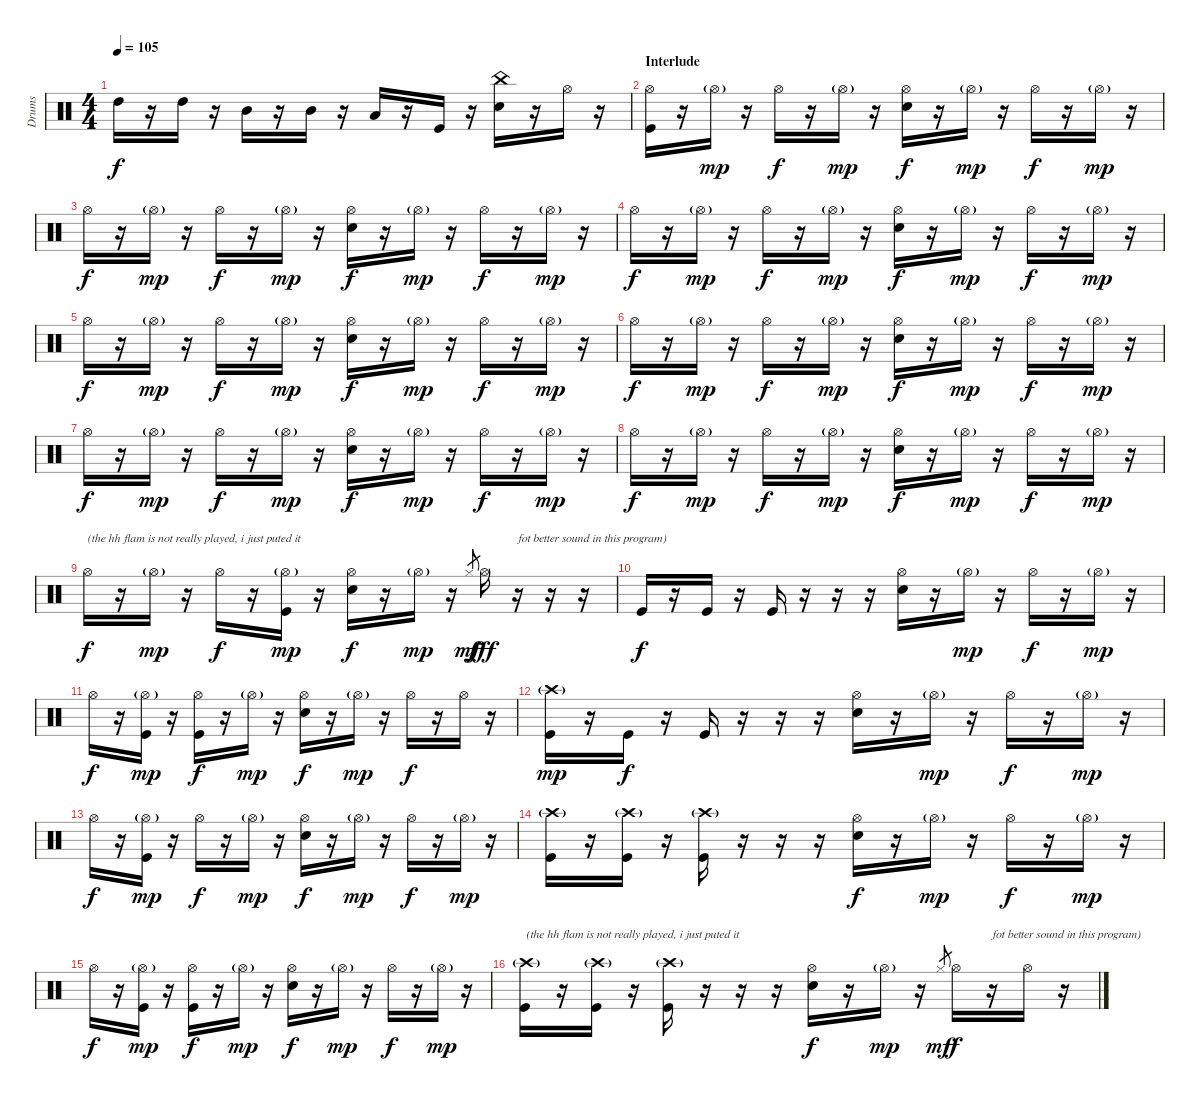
\track ("Drums" "Drums") {instrument percussion}
\staff {score}
\articulation defaults
\ts (4 4)
\tempo 105
\clef neutral
\ks c "High Tom (hit)".16{dy f}
r.16 "High Tom (hit)".16 r.16 "Mid Tom (hit)".16 r.16 "Mid Tom (hit)".16 r.16 "Low Tom (hit)".16 r.16 "Kick (hit)".16 r.16 ("China (hit)" "Snare (hit) 2").16 r.16 "Hi-Hat (open)".16 r.16 |
\section ("" "Interlude")
("Hi-Hat (open)" "Kick (hit)").16 r.16 "Hi-Hat (open)"{g}.16{dy mp} r.16 "Hi-Hat (open)".16{dy f} r.16 "Hi-Hat (open)"{g}.16{dy mp} r.16 ("Hi-Hat (open)" "Snare (hit) 2").16{dy f} r.16 "Hi-Hat (open)"{g}.16{dy mp} r.16 "Hi-Hat (open)".16{dy f} r.16 "Hi-Hat (open)"{g}.16{dy mp} r.16 |
"Hi-Hat (open)".16{dy f} r.16 "Hi-Hat (open)"{g}.16{dy mp} r.16 "Hi-Hat (open)".16{dy f} r.16 "Hi-Hat (open)"{g}.16{dy mp} r.16 ("Hi-Hat (open)" "Snare (hit) 2").16{dy f} r.16 "Hi-Hat (open)"{g}.16{dy mp} r.16 "Hi-Hat (open)".16{dy f} r.16 "Hi-Hat (open)"{g}.16{dy mp} r.16 |
"Hi-Hat (open)".16{dy f} r.16 "Hi-Hat (open)"{g}.16{dy mp} r.16 "Hi-Hat (open)".16{dy f} r.16 "Hi-Hat (open)"{g}.16{dy mp} r.16 ("Hi-Hat (open)" "Snare (hit) 2").16{dy f} r.16 "Hi-Hat (open)"{g}.16{dy mp} r.16 "Hi-Hat (open)".16{dy f} r.16 "Hi-Hat (open)"{g}.16{dy mp} r.16 |
"Hi-Hat (open)".16{dy f} r.16 "Hi-Hat (open)"{g}.16{dy mp} r.16 "Hi-Hat (open)".16{dy f} r.16 "Hi-Hat (open)"{g}.16{dy mp} r.16 ("Hi-Hat (open)" "Snare (hit) 2").16{dy f} r.16 "Hi-Hat (open)"{g}.16{dy mp} r.16 "Hi-Hat (open)".16{dy f} r.16 "Hi-Hat (open)"{g}.16{dy mp} r.16 |
"Hi-Hat (open)".16{dy f} r.16 "Hi-Hat (open)"{g}.16{dy mp} r.16 "Hi-Hat (open)".16{dy f} r.16 "Hi-Hat (open)"{g}.16{dy mp} r.16 ("Hi-Hat (open)" "Snare (hit) 2").16{dy f} r.16 "Hi-Hat (open)"{g}.16{dy mp} r.16 "Hi-Hat (open)".16{dy f} r.16 "Hi-Hat (open)"{g}.16{dy mp} r.16 |
"Hi-Hat (open)".16{dy f} r.16 "Hi-Hat (open)"{g}.16{dy mp} r.16 "Hi-Hat (open)".16{dy f} r.16 "Hi-Hat (open)"{g}.16{dy mp} r.16 ("Hi-Hat (open)" "Snare (hit) 2").16{dy f} r.16 "Hi-Hat (open)"{g}.16{dy mp} r.16 "Hi-Hat (open)".16{dy f} r.16 "Hi-Hat (open)"{g}.16{dy mp} r.16 |
"Hi-Hat (open)".16{dy f} r.16 "Hi-Hat (open)"{g}.16{dy mp} r.16 "Hi-Hat (open)".16{dy f} r.16 "Hi-Hat (open)"{g}.16{dy mp} r.16 ("Hi-Hat (open)" "Snare (hit) 2").16{dy f} r.16 "Hi-Hat (open)"{g}.16{dy mp} r.16 "Hi-Hat (open)".16{dy f} r.16 "Hi-Hat (open)"{g}.16{dy mp} r.16 |
"Hi-Hat (open)".16{txt "(the hh flam is not really played, i just puted it" dy f} r.16 "Hi-Hat (open)"{g}.16{dy mp} r.16 "Hi-Hat (open)".16{dy f} r.16 ("Hi-Hat (open)"{g} "Kick (hit)").16{dy mp} r.16 ("Hi-Hat (open)" "Snare (hit) 2").16{dy f} r.16 "Hi-Hat (open)"{g}.16{dy mp} r.16 "Hi-Hat (closed)".8{gr dy mf} "Hi-Hat (open)".16{dy fff} r.16{txt "fot better sound in this program)"} r.16 r.16 |
"Kick (hit)".16{dy f} r.16 "Kick (hit)".16 r.16 "Kick (hit)".16 r.16 r.16 r.16 ("Hi-Hat (open)" "Snare (hit) 2").16 r.16 "Hi-Hat (open)"{g}.16{dy mp} r.16 "Hi-Hat (open)".16{dy f} r.16 "Hi-Hat (open)"{g}.16{dy mp} r.16 |
"Hi-Hat (open)".16{dy f} r.16 ("Hi-Hat (open)"{g} "Kick (hit)").16{dy mp} r.16 ("Hi-Hat (open)" "Kick (hit)").16{dy f} r.16 "Hi-Hat (open)"{g}.16{dy mp} r.16 ("Hi-Hat (open)" "Snare (hit) 2").16{dy f} r.16 "Hi-Hat (open)"{g}.16{dy mp} r.16 "Hi-Hat (open)".16{dy f} r.16 "Hi-Hat (open)".16 r.16 |
("Crash high (hit)"{g} "Kick (hit)").16{dy mp} r.16 "Kick (hit)".16{dy f} r.16 "Kick (hit)".16 r.16 r.16 r.16 ("Hi-Hat (open)" "Snare (hit) 2").16 r.16 "Hi-Hat (open)"{g}.16{dy mp} r.16 "Hi-Hat (open)".16{dy f} r.16 "Hi-Hat (open)"{g}.16{dy mp} r.16 |
"Hi-Hat (open)".16{dy f} r.16 ("Hi-Hat (open)"{g} "Kick (hit)").16{dy mp} r.16 "Hi-Hat (open)".16{dy f} r.16 "Hi-Hat (open)"{g}.16{dy mp} r.16 ("Hi-Hat (open)" "Snare (hit) 2").16{dy f} r.16 "Hi-Hat (open)"{g}.16{dy mp} r.16 "Hi-Hat (open)".16{dy f} r.16 "Hi-Hat (open)"{g}.16{dy mp} r.16 |
("Crash high (hit)"{g} "Kick (hit)").16 r.16 ("Crash high (hit)"{g} "Kick (hit)").16 r.16 ("Crash high (hit)"{g} "Kick (hit)").16 r.16 r.16 r.16 ("Hi-Hat (open)" "Snare (hit) 2").16{dy f} r.16 "Hi-Hat (open)"{g}.16{dy mp} r.16 "Hi-Hat (open)".16{dy f} r.16 "Hi-Hat (open)"{g}.16{dy mp} r.16 |
"Hi-Hat (open)".16{dy f} r.16 ("Hi-Hat (open)"{g} "Kick (hit)").16{dy mp} r.16 ("Hi-Hat (open)" "Kick (hit)").16{dy f} r.16 "Hi-Hat (open)"{g}.16{dy mp} r.16 ("Hi-Hat (open)" "Snare (hit) 2").16{dy f} r.16 "Hi-Hat (open)"{g}.16{dy mp} r.16 "Hi-Hat (open)".16{dy f} r.16 "Hi-Hat (open)"{g}.16{dy mp} r.16 |
("Crash high (hit)"{g} "Kick (hit)").16{txt "(the hh flam is not really played, i just puted it"} r.16 ("Crash high (hit)"{g} "Kick (hit)").16 r.16 ("Crash high (hit)"{g} "Kick (hit)").16 r.16 r.16 r.16 ("Hi-Hat (open)" "Snare (hit) 2").16{dy f} r.16 "Hi-Hat (open)"{g}.16{dy mp} r.16 "Hi-Hat (closed)".8{gr dy mf} "Hi-Hat (open)".16{dy f} r.16{txt "fot better sound in this program)"} "Hi-Hat (open)".16 r.16
